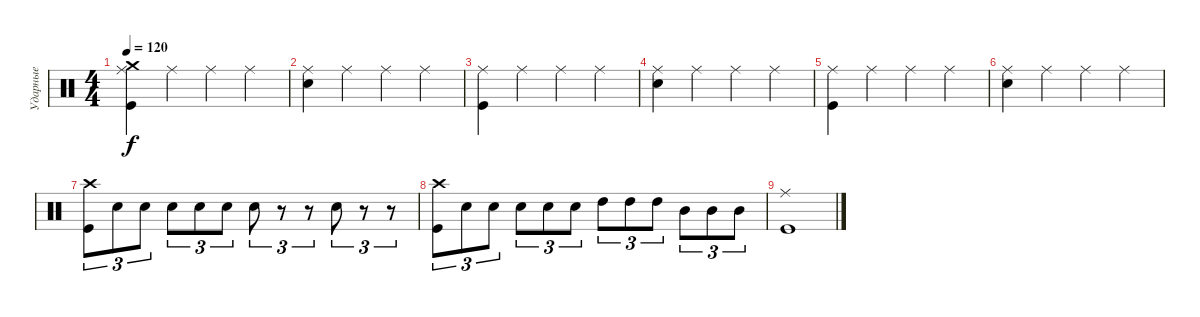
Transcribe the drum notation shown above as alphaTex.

\track ("Ударные" "Ударные") {instrument percussion}
\staff {score}
\articulation defaults
\ts (4 4)
\tempo 120
\clef neutral
\ks c
("Kick (hit)" "Ride (middle)" "Crash medium (hit)").4{dy f} "Ride (middle)".4 "Ride (middle)".4 "Ride (middle)".4 |
("Snare (hit) 2" "Ride (middle)").4 "Ride (middle)".4 "Ride (middle)".4 "Ride (middle)".4 |
("Kick (hit)" "Ride (middle)").4 "Ride (middle)".4 "Ride (middle)".4 "Ride (middle)".4 |
("Snare (hit) 2" "Ride (middle)").4 "Ride (middle)".4 "Ride (middle)".4 "Ride (middle)".4 |
("Kick (hit)" "Ride (middle)").4 "Ride (middle)".4 "Ride (middle)".4 "Ride (middle)".4 |
("Snare (hit) 2" "Ride (middle)").4 "Ride (middle)".4 "Ride (middle)".4 "Ride (middle)".4 |
("Kick (hit)" "Crash high (hit)").8{tu (3 2)} "Snare (hit) 2".8{tu (3 2)} "Snare (hit) 2".8{tu (3 2)} "Snare (hit) 2".8{tu (3 2)} "Snare (hit) 2".8{tu (3 2)} "Snare (hit) 2".8{tu (3 2)} "Snare (hit) 2".8{tu (3 2)} r.8{tu (3 2)} r.8{tu (3 2)} "Snare (hit) 2".8{tu (3 2)} r.8{tu (3 2)} r.8{tu (3 2)} |
("Kick (hit)" "Crash high (hit)").8{tu (3 2)} "Snare (hit) 2".8{tu (3 2)} "Snare (hit) 2".8{tu (3 2)} "Snare (hit) 2".8{tu (3 2)} "Snare (hit) 2".8{tu (3 2)} "Snare (hit) 2".8{tu (3 2)} "High Tom (hit)".8{tu (3 2)} "High Tom (hit)".8{tu (3 2)} "High Tom (hit)".8{tu (3 2)} "Mid Tom (hit)".8{tu (3 2)} "Mid Tom (hit)".8{tu (3 2)} "Mid Tom (hit)".8{tu (3 2)} |
("Kick (hit)" "Ride (middle)").1
